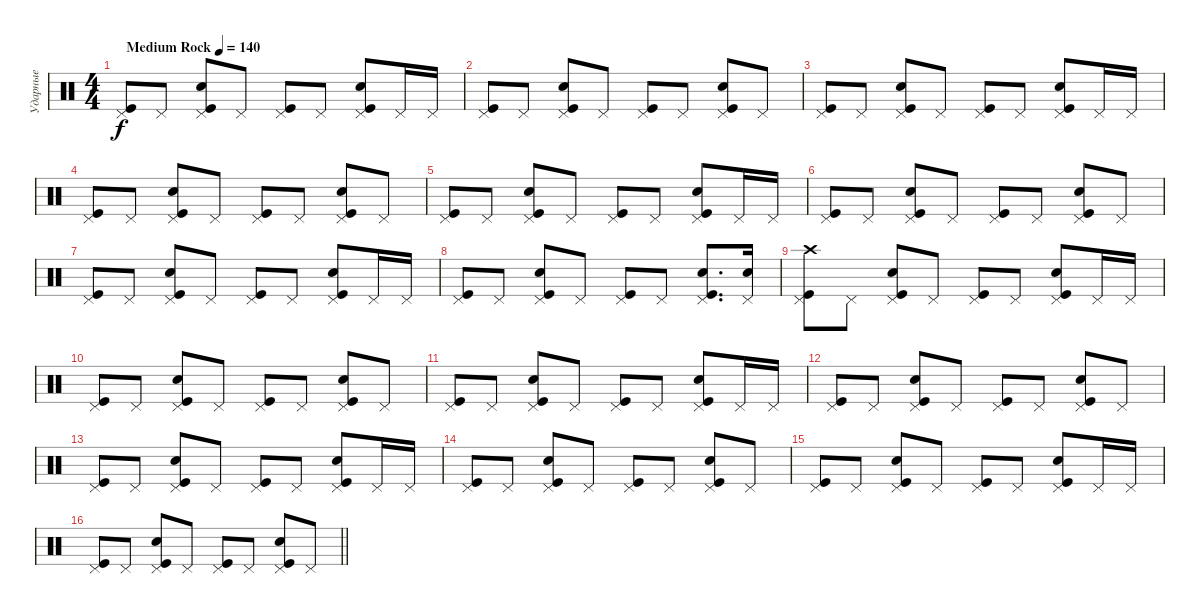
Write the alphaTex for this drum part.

\track ("Ударные" "Ударные") {instrument percussion}
\staff {score}
\articulation defaults
\ts (4 4)
\tempo (140 "Medium Rock")
\clef neutral
\ks c
("Pedal Hi-Hat (hit)" "Kick (hit)").8{dy f} "Pedal Hi-Hat (hit)".8 ("Pedal Hi-Hat (hit)" "Kick (hit)" "Snare (hit) 2").8 "Pedal Hi-Hat (hit)".8 ("Pedal Hi-Hat (hit)" "Kick (hit)").8 "Pedal Hi-Hat (hit)".8 ("Pedal Hi-Hat (hit)" "Kick (hit)" "Snare (hit) 2").8 "Pedal Hi-Hat (hit)".16 "Pedal Hi-Hat (hit)".16 |
("Pedal Hi-Hat (hit)" "Kick (hit)").8 "Pedal Hi-Hat (hit)".8 ("Pedal Hi-Hat (hit)" "Kick (hit)" "Snare (hit) 2").8 "Pedal Hi-Hat (hit)".8 ("Pedal Hi-Hat (hit)" "Kick (hit)").8 "Pedal Hi-Hat (hit)".8 ("Pedal Hi-Hat (hit)" "Kick (hit)" "Snare (hit) 2").8 "Pedal Hi-Hat (hit)".8 |
("Pedal Hi-Hat (hit)" "Kick (hit)").8 "Pedal Hi-Hat (hit)".8 ("Pedal Hi-Hat (hit)" "Kick (hit)" "Snare (hit) 2").8 "Pedal Hi-Hat (hit)".8 ("Pedal Hi-Hat (hit)" "Kick (hit)").8 "Pedal Hi-Hat (hit)".8 ("Pedal Hi-Hat (hit)" "Kick (hit)" "Snare (hit) 2").8 "Pedal Hi-Hat (hit)".16 "Pedal Hi-Hat (hit)".16 |
("Pedal Hi-Hat (hit)" "Kick (hit)").8 "Pedal Hi-Hat (hit)".8 ("Pedal Hi-Hat (hit)" "Kick (hit)" "Snare (hit) 2").8 "Pedal Hi-Hat (hit)".8 ("Pedal Hi-Hat (hit)" "Kick (hit)").8 "Pedal Hi-Hat (hit)".8 ("Pedal Hi-Hat (hit)" "Kick (hit)" "Snare (hit) 2").8 "Pedal Hi-Hat (hit)".8 |
("Pedal Hi-Hat (hit)" "Kick (hit)").8 "Pedal Hi-Hat (hit)".8 ("Pedal Hi-Hat (hit)" "Kick (hit)" "Snare (hit) 2").8 "Pedal Hi-Hat (hit)".8 ("Pedal Hi-Hat (hit)" "Kick (hit)").8 "Pedal Hi-Hat (hit)".8 ("Pedal Hi-Hat (hit)" "Kick (hit)" "Snare (hit) 2").8 "Pedal Hi-Hat (hit)".16 "Pedal Hi-Hat (hit)".16 |
("Pedal Hi-Hat (hit)" "Kick (hit)").8 "Pedal Hi-Hat (hit)".8 ("Pedal Hi-Hat (hit)" "Kick (hit)" "Snare (hit) 2").8 "Pedal Hi-Hat (hit)".8 ("Pedal Hi-Hat (hit)" "Kick (hit)").8 "Pedal Hi-Hat (hit)".8 ("Pedal Hi-Hat (hit)" "Kick (hit)" "Snare (hit) 2").8 "Pedal Hi-Hat (hit)".8 |
("Pedal Hi-Hat (hit)" "Kick (hit)").8 "Pedal Hi-Hat (hit)".8 ("Pedal Hi-Hat (hit)" "Kick (hit)" "Snare (hit) 2").8 "Pedal Hi-Hat (hit)".8 ("Pedal Hi-Hat (hit)" "Kick (hit)").8 "Pedal Hi-Hat (hit)".8 ("Pedal Hi-Hat (hit)" "Kick (hit)" "Snare (hit) 2").8 "Pedal Hi-Hat (hit)".16 "Pedal Hi-Hat (hit)".16 |
("Pedal Hi-Hat (hit)" "Kick (hit)").8 "Pedal Hi-Hat (hit)".8 ("Pedal Hi-Hat (hit)" "Kick (hit)" "Snare (hit) 2").8 "Pedal Hi-Hat (hit)".8 ("Pedal Hi-Hat (hit)" "Kick (hit)").8 "Pedal Hi-Hat (hit)".8 ("Pedal Hi-Hat (hit)" "Kick (hit)" "Snare (hit) 2").8{d} ("Pedal Hi-Hat (hit)" "Snare (hit) 2").16 |
("Pedal Hi-Hat (hit)" "Kick (hit)" "Crash high (hit)").8 "Pedal Hi-Hat (hit)".8 ("Pedal Hi-Hat (hit)" "Kick (hit)" "Snare (hit) 2").8 "Pedal Hi-Hat (hit)".8 ("Pedal Hi-Hat (hit)" "Kick (hit)").8 "Pedal Hi-Hat (hit)".8 ("Pedal Hi-Hat (hit)" "Kick (hit)" "Snare (hit) 2").8 "Pedal Hi-Hat (hit)".16 "Pedal Hi-Hat (hit)".16 |
("Pedal Hi-Hat (hit)" "Kick (hit)").8 "Pedal Hi-Hat (hit)".8 ("Pedal Hi-Hat (hit)" "Kick (hit)" "Snare (hit) 2").8 "Pedal Hi-Hat (hit)".8 ("Pedal Hi-Hat (hit)" "Kick (hit)").8 "Pedal Hi-Hat (hit)".8 ("Pedal Hi-Hat (hit)" "Kick (hit)" "Snare (hit) 2").8 "Pedal Hi-Hat (hit)".8 |
("Pedal Hi-Hat (hit)" "Kick (hit)").8 "Pedal Hi-Hat (hit)".8 ("Pedal Hi-Hat (hit)" "Kick (hit)" "Snare (hit) 2").8 "Pedal Hi-Hat (hit)".8 ("Pedal Hi-Hat (hit)" "Kick (hit)").8 "Pedal Hi-Hat (hit)".8 ("Pedal Hi-Hat (hit)" "Kick (hit)" "Snare (hit) 2").8 "Pedal Hi-Hat (hit)".16 "Pedal Hi-Hat (hit)".16 |
("Pedal Hi-Hat (hit)" "Kick (hit)").8 "Pedal Hi-Hat (hit)".8 ("Pedal Hi-Hat (hit)" "Kick (hit)" "Snare (hit) 2").8 "Pedal Hi-Hat (hit)".8 ("Pedal Hi-Hat (hit)" "Kick (hit)").8 "Pedal Hi-Hat (hit)".8 ("Pedal Hi-Hat (hit)" "Kick (hit)" "Snare (hit) 2").8 "Pedal Hi-Hat (hit)".8 |
("Pedal Hi-Hat (hit)" "Kick (hit)").8 "Pedal Hi-Hat (hit)".8 ("Pedal Hi-Hat (hit)" "Kick (hit)" "Snare (hit) 2").8 "Pedal Hi-Hat (hit)".8 ("Pedal Hi-Hat (hit)" "Kick (hit)").8 "Pedal Hi-Hat (hit)".8 ("Pedal Hi-Hat (hit)" "Kick (hit)" "Snare (hit) 2").8 "Pedal Hi-Hat (hit)".16 "Pedal Hi-Hat (hit)".16 |
("Pedal Hi-Hat (hit)" "Kick (hit)").8 "Pedal Hi-Hat (hit)".8 ("Pedal Hi-Hat (hit)" "Kick (hit)" "Snare (hit) 2").8 "Pedal Hi-Hat (hit)".8 ("Pedal Hi-Hat (hit)" "Kick (hit)").8 "Pedal Hi-Hat (hit)".8 ("Pedal Hi-Hat (hit)" "Kick (hit)" "Snare (hit) 2").8 "Pedal Hi-Hat (hit)".8 |
("Pedal Hi-Hat (hit)" "Kick (hit)").8 "Pedal Hi-Hat (hit)".8 ("Pedal Hi-Hat (hit)" "Kick (hit)" "Snare (hit) 2").8 "Pedal Hi-Hat (hit)".8 ("Pedal Hi-Hat (hit)" "Kick (hit)").8 "Pedal Hi-Hat (hit)".8 ("Pedal Hi-Hat (hit)" "Kick (hit)" "Snare (hit) 2").8 "Pedal Hi-Hat (hit)".16 "Pedal Hi-Hat (hit)".16 |
\barLineRight lightlight
("Pedal Hi-Hat (hit)" "Kick (hit)").8 "Pedal Hi-Hat (hit)".8 ("Pedal Hi-Hat (hit)" "Kick (hit)" "Snare (hit) 2").8 "Pedal Hi-Hat (hit)".8 ("Pedal Hi-Hat (hit)" "Kick (hit)").8 "Pedal Hi-Hat (hit)".8 ("Pedal Hi-Hat (hit)" "Kick (hit)" "Snare (hit) 2").8 "Pedal Hi-Hat (hit)".8
